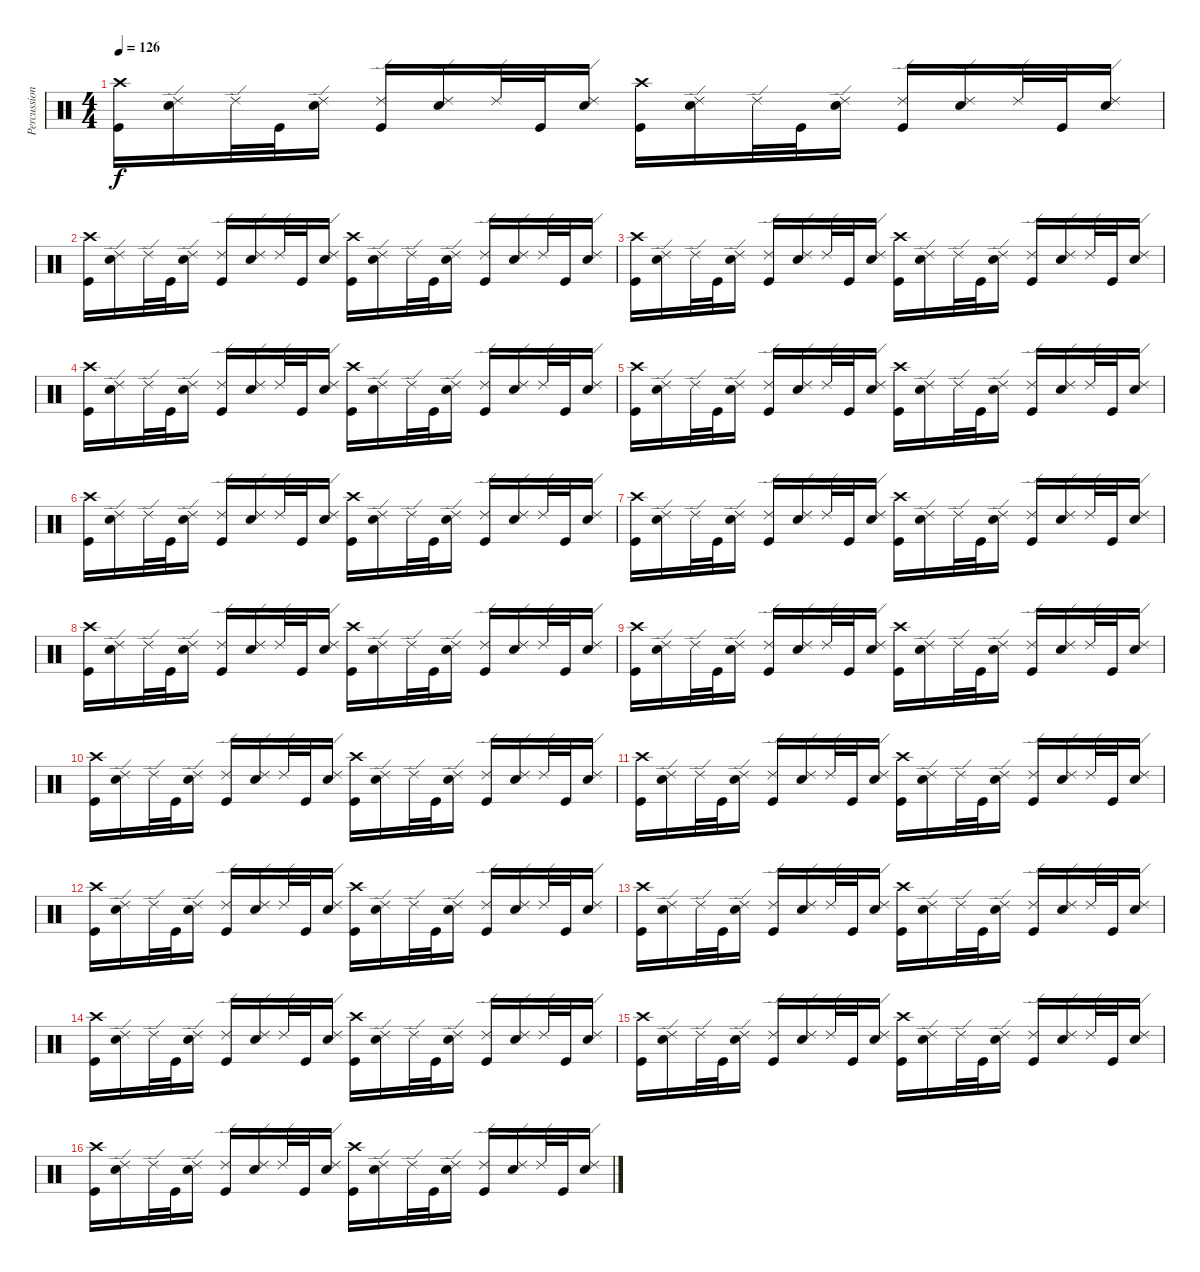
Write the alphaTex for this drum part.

\track ("Percussion" "Percussion") {instrument percussion}
\staff {score}
\articulation defaults
\ts (4 4)
\tempo 126
\clef neutral
\ks c
("Crash high (hit)" "Kick (hit)").16{dy f} ("Ride (edge) 2" "Snare (hit) 2").16 "Ride (edge) 2".32 "Kick (hit)".32 ("Ride (edge) 2" "Snare (hit) 2").16 ("Ride (edge) 2" "Kick (hit)").16 ("Ride (edge) 2" "Snare (hit) 2").16 "Ride (edge) 2".32 "Kick (hit)".32 ("Ride (edge) 2" "Snare (hit) 2").16 ("Crash high (hit)" "Kick (hit)").16 ("Ride (edge) 2" "Snare (hit) 2").16 "Ride (edge) 2".32 "Kick (hit)".32 ("Ride (edge) 2" "Snare (hit) 2").16 ("Ride (edge) 2" "Kick (hit)").16 ("Ride (edge) 2" "Snare (hit) 2").16 "Ride (edge) 2".32 "Kick (hit)".32 ("Ride (edge) 2" "Snare (hit) 2").16 |
("Crash high (hit)" "Kick (hit)").16 ("Ride (edge) 2" "Snare (hit) 2").16 "Ride (edge) 2".32 "Kick (hit)".32 ("Ride (edge) 2" "Snare (hit) 2").16 ("Ride (edge) 2" "Kick (hit)").16 ("Ride (edge) 2" "Snare (hit) 2").16 "Ride (edge) 2".32 "Kick (hit)".32 ("Ride (edge) 2" "Snare (hit) 2").16 ("Crash high (hit)" "Kick (hit)").16 ("Ride (edge) 2" "Snare (hit) 2").16 "Ride (edge) 2".32 "Kick (hit)".32 ("Ride (edge) 2" "Snare (hit) 2").16 ("Ride (edge) 2" "Kick (hit)").16 ("Ride (edge) 2" "Snare (hit) 2").16 "Ride (edge) 2".32 "Kick (hit)".32 ("Ride (edge) 2" "Snare (hit) 2").16 |
("Crash high (hit)" "Kick (hit)").16 ("Ride (edge) 2" "Snare (hit) 2").16 "Ride (edge) 2".32 "Kick (hit)".32 ("Ride (edge) 2" "Snare (hit) 2").16 ("Ride (edge) 2" "Kick (hit)").16 ("Ride (edge) 2" "Snare (hit) 2").16 "Ride (edge) 2".32 "Kick (hit)".32 ("Ride (edge) 2" "Snare (hit) 2").16 ("Crash high (hit)" "Kick (hit)").16 ("Ride (edge) 2" "Snare (hit) 2").16 "Ride (edge) 2".32 "Kick (hit)".32 ("Ride (edge) 2" "Snare (hit) 2").16 ("Ride (edge) 2" "Kick (hit)").16 ("Ride (edge) 2" "Snare (hit) 2").16 "Ride (edge) 2".32 "Kick (hit)".32 ("Ride (edge) 2" "Snare (hit) 2").16 |
("Crash high (hit)" "Kick (hit)").16 ("Ride (edge) 2" "Snare (hit) 2").16 "Ride (edge) 2".32 "Kick (hit)".32 ("Ride (edge) 2" "Snare (hit) 2").16 ("Ride (edge) 2" "Kick (hit)").16 ("Ride (edge) 2" "Snare (hit) 2").16 "Ride (edge) 2".32 "Kick (hit)".32 ("Ride (edge) 2" "Snare (hit) 2").16 ("Crash high (hit)" "Kick (hit)").16 ("Ride (edge) 2" "Snare (hit) 2").16 "Ride (edge) 2".32 "Kick (hit)".32 ("Ride (edge) 2" "Snare (hit) 2").16 ("Ride (edge) 2" "Kick (hit)").16 ("Ride (edge) 2" "Snare (hit) 2").16 "Ride (edge) 2".32 "Kick (hit)".32 ("Ride (edge) 2" "Snare (hit) 2").16 |
("Crash high (hit)" "Kick (hit)").16 ("Ride (edge) 2" "Snare (hit) 2").16 "Ride (edge) 2".32 "Kick (hit)".32 ("Ride (edge) 2" "Snare (hit) 2").16 ("Ride (edge) 2" "Kick (hit)").16 ("Ride (edge) 2" "Snare (hit) 2").16 "Ride (edge) 2".32 "Kick (hit)".32 ("Ride (edge) 2" "Snare (hit) 2").16 ("Crash high (hit)" "Kick (hit)").16 ("Ride (edge) 2" "Snare (hit) 2").16 "Ride (edge) 2".32 "Kick (hit)".32 ("Ride (edge) 2" "Snare (hit) 2").16 ("Ride (edge) 2" "Kick (hit)").16 ("Ride (edge) 2" "Snare (hit) 2").16 "Ride (edge) 2".32 "Kick (hit)".32 ("Ride (edge) 2" "Snare (hit) 2").16 |
("Crash high (hit)" "Kick (hit)").16 ("Ride (edge) 2" "Snare (hit) 2").16 "Ride (edge) 2".32 "Kick (hit)".32 ("Ride (edge) 2" "Snare (hit) 2").16 ("Ride (edge) 2" "Kick (hit)").16 ("Ride (edge) 2" "Snare (hit) 2").16 "Ride (edge) 2".32 "Kick (hit)".32 ("Ride (edge) 2" "Snare (hit) 2").16 ("Crash high (hit)" "Kick (hit)").16 ("Ride (edge) 2" "Snare (hit) 2").16 "Ride (edge) 2".32 "Kick (hit)".32 ("Ride (edge) 2" "Snare (hit) 2").16 ("Ride (edge) 2" "Kick (hit)").16 ("Ride (edge) 2" "Snare (hit) 2").16 "Ride (edge) 2".32 "Kick (hit)".32 ("Ride (edge) 2" "Snare (hit) 2").16 |
("Crash high (hit)" "Kick (hit)").16 ("Ride (edge) 2" "Snare (hit) 2").16 "Ride (edge) 2".32 "Kick (hit)".32 ("Ride (edge) 2" "Snare (hit) 2").16 ("Ride (edge) 2" "Kick (hit)").16 ("Ride (edge) 2" "Snare (hit) 2").16 "Ride (edge) 2".32 "Kick (hit)".32 ("Ride (edge) 2" "Snare (hit) 2").16 ("Crash high (hit)" "Kick (hit)").16 ("Ride (edge) 2" "Snare (hit) 2").16 "Ride (edge) 2".32 "Kick (hit)".32 ("Ride (edge) 2" "Snare (hit) 2").16 ("Ride (edge) 2" "Kick (hit)").16 ("Ride (edge) 2" "Snare (hit) 2").16 "Ride (edge) 2".32 "Kick (hit)".32 ("Ride (edge) 2" "Snare (hit) 2").16 |
("Crash high (hit)" "Kick (hit)").16 ("Ride (edge) 2" "Snare (hit) 2").16 "Ride (edge) 2".32 "Kick (hit)".32 ("Ride (edge) 2" "Snare (hit) 2").16 ("Ride (edge) 2" "Kick (hit)").16 ("Ride (edge) 2" "Snare (hit) 2").16 "Ride (edge) 2".32 "Kick (hit)".32 ("Ride (edge) 2" "Snare (hit) 2").16 ("Crash high (hit)" "Kick (hit)").16 ("Ride (edge) 2" "Snare (hit) 2").16 "Ride (edge) 2".32 "Kick (hit)".32 ("Ride (edge) 2" "Snare (hit) 2").16 ("Ride (edge) 2" "Kick (hit)").16 ("Ride (edge) 2" "Snare (hit) 2").16 "Ride (edge) 2".32 "Kick (hit)".32 ("Ride (edge) 2" "Snare (hit) 2").16 |
("Crash high (hit)" "Kick (hit)").16 ("Ride (edge) 2" "Snare (hit) 2").16 "Ride (edge) 2".32 "Kick (hit)".32 ("Ride (edge) 2" "Snare (hit) 2").16 ("Ride (edge) 2" "Kick (hit)").16 ("Ride (edge) 2" "Snare (hit) 2").16 "Ride (edge) 2".32 "Kick (hit)".32 ("Ride (edge) 2" "Snare (hit) 2").16 ("Crash high (hit)" "Kick (hit)").16 ("Ride (edge) 2" "Snare (hit) 2").16 "Ride (edge) 2".32 "Kick (hit)".32 ("Ride (edge) 2" "Snare (hit) 2").16 ("Ride (edge) 2" "Kick (hit)").16 ("Ride (edge) 2" "Snare (hit) 2").16 "Ride (edge) 2".32 "Kick (hit)".32 ("Ride (edge) 2" "Snare (hit) 2").16 |
("Crash high (hit)" "Kick (hit)").16 ("Ride (edge) 2" "Snare (hit) 2").16 "Ride (edge) 2".32 "Kick (hit)".32 ("Ride (edge) 2" "Snare (hit) 2").16 ("Ride (edge) 2" "Kick (hit)").16 ("Ride (edge) 2" "Snare (hit) 2").16 "Ride (edge) 2".32 "Kick (hit)".32 ("Ride (edge) 2" "Snare (hit) 2").16 ("Crash high (hit)" "Kick (hit)").16 ("Ride (edge) 2" "Snare (hit) 2").16 "Ride (edge) 2".32 "Kick (hit)".32 ("Ride (edge) 2" "Snare (hit) 2").16 ("Ride (edge) 2" "Kick (hit)").16 ("Ride (edge) 2" "Snare (hit) 2").16 "Ride (edge) 2".32 "Kick (hit)".32 ("Ride (edge) 2" "Snare (hit) 2").16 |
("Crash high (hit)" "Kick (hit)").16 ("Ride (edge) 2" "Snare (hit) 2").16 "Ride (edge) 2".32 "Kick (hit)".32 ("Ride (edge) 2" "Snare (hit) 2").16 ("Ride (edge) 2" "Kick (hit)").16 ("Ride (edge) 2" "Snare (hit) 2").16 "Ride (edge) 2".32 "Kick (hit)".32 ("Ride (edge) 2" "Snare (hit) 2").16 ("Crash high (hit)" "Kick (hit)").16 ("Ride (edge) 2" "Snare (hit) 2").16 "Ride (edge) 2".32 "Kick (hit)".32 ("Ride (edge) 2" "Snare (hit) 2").16 ("Ride (edge) 2" "Kick (hit)").16 ("Ride (edge) 2" "Snare (hit) 2").16 "Ride (edge) 2".32 "Kick (hit)".32 ("Ride (edge) 2" "Snare (hit) 2").16 |
("Crash high (hit)" "Kick (hit)").16 ("Ride (edge) 2" "Snare (hit) 2").16 "Ride (edge) 2".32 "Kick (hit)".32 ("Ride (edge) 2" "Snare (hit) 2").16 ("Ride (edge) 2" "Kick (hit)").16 ("Ride (edge) 2" "Snare (hit) 2").16 "Ride (edge) 2".32 "Kick (hit)".32 ("Ride (edge) 2" "Snare (hit) 2").16 ("Crash high (hit)" "Kick (hit)").16 ("Ride (edge) 2" "Snare (hit) 2").16 "Ride (edge) 2".32 "Kick (hit)".32 ("Ride (edge) 2" "Snare (hit) 2").16 ("Ride (edge) 2" "Kick (hit)").16 ("Ride (edge) 2" "Snare (hit) 2").16 "Ride (edge) 2".32 "Kick (hit)".32 ("Ride (edge) 2" "Snare (hit) 2").16 |
("Crash high (hit)" "Kick (hit)").16 ("Ride (edge) 2" "Snare (hit) 2").16 "Ride (edge) 2".32 "Kick (hit)".32 ("Ride (edge) 2" "Snare (hit) 2").16 ("Ride (edge) 2" "Kick (hit)").16 ("Ride (edge) 2" "Snare (hit) 2").16 "Ride (edge) 2".32 "Kick (hit)".32 ("Ride (edge) 2" "Snare (hit) 2").16 ("Crash high (hit)" "Kick (hit)").16 ("Ride (edge) 2" "Snare (hit) 2").16 "Ride (edge) 2".32 "Kick (hit)".32 ("Ride (edge) 2" "Snare (hit) 2").16 ("Ride (edge) 2" "Kick (hit)").16 ("Ride (edge) 2" "Snare (hit) 2").16 "Ride (edge) 2".32 "Kick (hit)".32 ("Ride (edge) 2" "Snare (hit) 2").16 |
("Crash high (hit)" "Kick (hit)").16 ("Ride (edge) 2" "Snare (hit) 2").16 "Ride (edge) 2".32 "Kick (hit)".32 ("Ride (edge) 2" "Snare (hit) 2").16 ("Ride (edge) 2" "Kick (hit)").16 ("Ride (edge) 2" "Snare (hit) 2").16 "Ride (edge) 2".32 "Kick (hit)".32 ("Ride (edge) 2" "Snare (hit) 2").16 ("Crash high (hit)" "Kick (hit)").16 ("Ride (edge) 2" "Snare (hit) 2").16 "Ride (edge) 2".32 "Kick (hit)".32 ("Ride (edge) 2" "Snare (hit) 2").16 ("Ride (edge) 2" "Kick (hit)").16 ("Ride (edge) 2" "Snare (hit) 2").16 "Ride (edge) 2".32 "Kick (hit)".32 ("Ride (edge) 2" "Snare (hit) 2").16 |
("Crash high (hit)" "Kick (hit)").16 ("Ride (edge) 2" "Snare (hit) 2").16 "Ride (edge) 2".32 "Kick (hit)".32 ("Ride (edge) 2" "Snare (hit) 2").16 ("Ride (edge) 2" "Kick (hit)").16 ("Ride (edge) 2" "Snare (hit) 2").16 "Ride (edge) 2".32 "Kick (hit)".32 ("Ride (edge) 2" "Snare (hit) 2").16 ("Crash high (hit)" "Kick (hit)").16 ("Ride (edge) 2" "Snare (hit) 2").16 "Ride (edge) 2".32 "Kick (hit)".32 ("Ride (edge) 2" "Snare (hit) 2").16 ("Ride (edge) 2" "Kick (hit)").16 ("Ride (edge) 2" "Snare (hit) 2").16 "Ride (edge) 2".32 "Kick (hit)".32 ("Ride (edge) 2" "Snare (hit) 2").16 |
("Crash high (hit)" "Kick (hit)").16 ("Ride (edge) 2" "Snare (hit) 2").16 "Ride (edge) 2".32 "Kick (hit)".32 ("Ride (edge) 2" "Snare (hit) 2").16 ("Ride (edge) 2" "Kick (hit)").16 ("Ride (edge) 2" "Snare (hit) 2").16 "Ride (edge) 2".32 "Kick (hit)".32 ("Ride (edge) 2" "Snare (hit) 2").16 ("Crash high (hit)" "Kick (hit)").16 ("Ride (edge) 2" "Snare (hit) 2").16 "Ride (edge) 2".32 "Kick (hit)".32 ("Ride (edge) 2" "Snare (hit) 2").16 ("Ride (edge) 2" "Kick (hit)").16 ("Ride (edge) 2" "Snare (hit) 2").16 "Ride (edge) 2".32 "Kick (hit)".32 ("Ride (edge) 2" "Snare (hit) 2").16
